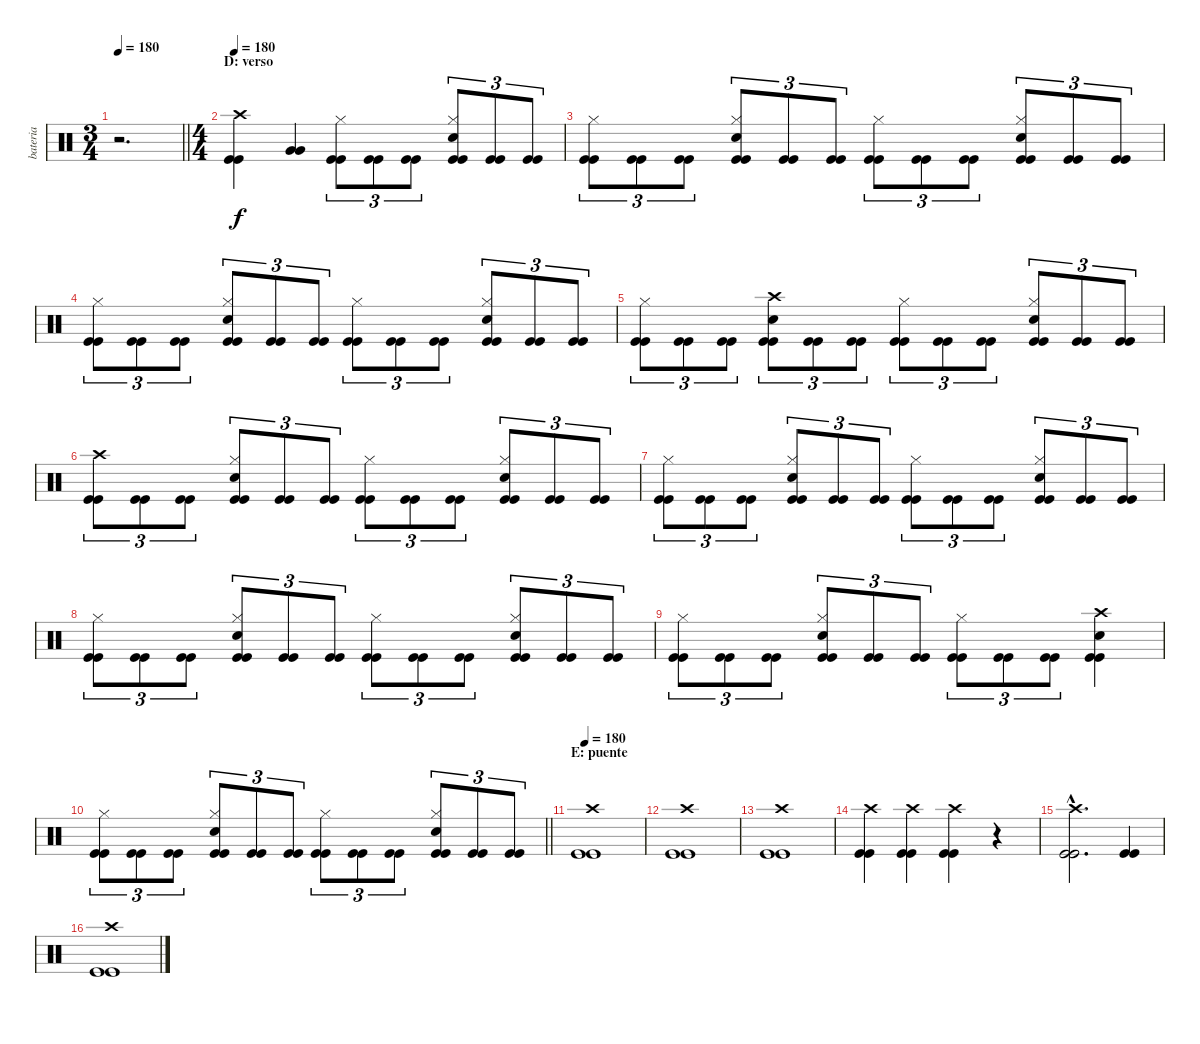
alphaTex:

\track ("bateria" "bateria") {instrument percussion}
\staff {score}
\articulation defaults
\ts (3 4)
\tempo 180
\clef neutral
\barLineRight lightlight
\ks c
r.2{d dy f} |
\ts (4 4)
\section ("" "D: verso ")
\tempo 180
("Crash high (hit)" "Kick (hit)" "Kick (hit)").4 ("Very Low Tom (hit)" "Very Low Tom (hit)").4 ("Hi-Hat (closed)" "Kick (hit)" "Kick (hit)").8{tu (3 2)} ("Kick (hit)" "Kick (hit)").8{tu (3 2)} ("Kick (hit)" "Kick (hit)").8{tu (3 2)} ("Hi-Hat (closed)" "Snare (hit) 2" "Kick (hit)" "Kick (hit)").8{tu (3 2)} ("Kick (hit)" "Kick (hit)").8{tu (3 2)} ("Kick (hit)" "Kick (hit)").8{tu (3 2)} |
("Hi-Hat (closed)" "Kick (hit)" "Kick (hit)").8{tu (3 2)} ("Kick (hit)" "Kick (hit)").8{tu (3 2)} ("Kick (hit)" "Kick (hit)").8{tu (3 2)} ("Hi-Hat (closed)" "Snare (hit) 2" "Kick (hit)" "Kick (hit)").8{tu (3 2)} ("Kick (hit)" "Kick (hit)").8{tu (3 2)} ("Kick (hit)" "Kick (hit)").8{tu (3 2)} ("Hi-Hat (closed)" "Kick (hit)" "Kick (hit)").8{tu (3 2)} ("Kick (hit)" "Kick (hit)").8{tu (3 2)} ("Kick (hit)" "Kick (hit)").8{tu (3 2)} ("Hi-Hat (closed)" "Snare (hit) 2" "Kick (hit)" "Kick (hit)").8{tu (3 2)} ("Kick (hit)" "Kick (hit)").8{tu (3 2)} ("Kick (hit)" "Kick (hit)").8{tu (3 2)} |
("Hi-Hat (closed)" "Kick (hit)" "Kick (hit)").8{tu (3 2)} ("Kick (hit)" "Kick (hit)").8{tu (3 2)} ("Kick (hit)" "Kick (hit)").8{tu (3 2)} ("Hi-Hat (closed)" "Snare (hit) 2" "Kick (hit)" "Kick (hit)").8{tu (3 2)} ("Kick (hit)" "Kick (hit)").8{tu (3 2)} ("Kick (hit)" "Kick (hit)").8{tu (3 2)} ("Hi-Hat (closed)" "Kick (hit)" "Kick (hit)").8{tu (3 2)} ("Kick (hit)" "Kick (hit)").8{tu (3 2)} ("Kick (hit)" "Kick (hit)").8{tu (3 2)} ("Hi-Hat (closed)" "Snare (hit) 2" "Kick (hit)" "Kick (hit)").8{tu (3 2)} ("Kick (hit)" "Kick (hit)").8{tu (3 2)} ("Kick (hit)" "Kick (hit)").8{tu (3 2)} |
("Hi-Hat (closed)" "Kick (hit)" "Kick (hit)").8{tu (3 2)} ("Kick (hit)" "Kick (hit)").8{tu (3 2)} ("Kick (hit)" "Kick (hit)").8{tu (3 2)} ("Crash high (hit)" "Snare (hit) 2" "Kick (hit)" "Kick (hit)").8{tu (3 2)} ("Kick (hit)" "Kick (hit)").8{tu (3 2)} ("Kick (hit)" "Kick (hit)").8{tu (3 2)} ("Hi-Hat (closed)" "Kick (hit)" "Kick (hit)").8{tu (3 2)} ("Kick (hit)" "Kick (hit)").8{tu (3 2)} ("Kick (hit)" "Kick (hit)").8{tu (3 2)} ("Hi-Hat (closed)" "Snare (hit) 2" "Kick (hit)" "Kick (hit)").8{tu (3 2)} ("Kick (hit)" "Kick (hit)").8{tu (3 2)} ("Kick (hit)" "Kick (hit)").8{tu (3 2)} |
("Crash high (hit)" "Kick (hit)" "Kick (hit)").8{tu (3 2)} ("Kick (hit)" "Kick (hit)").8{tu (3 2)} ("Kick (hit)" "Kick (hit)").8{tu (3 2)} ("Hi-Hat (closed)" "Snare (hit) 2" "Kick (hit)" "Kick (hit)").8{tu (3 2)} ("Kick (hit)" "Kick (hit)").8{tu (3 2)} ("Kick (hit)" "Kick (hit)").8{tu (3 2)} ("Hi-Hat (closed)" "Kick (hit)" "Kick (hit)").8{tu (3 2)} ("Kick (hit)" "Kick (hit)").8{tu (3 2)} ("Kick (hit)" "Kick (hit)").8{tu (3 2)} ("Hi-Hat (closed)" "Snare (hit) 2" "Kick (hit)" "Kick (hit)").8{tu (3 2)} ("Kick (hit)" "Kick (hit)").8{tu (3 2)} ("Kick (hit)" "Kick (hit)").8{tu (3 2)} |
("Hi-Hat (closed)" "Kick (hit)" "Kick (hit)").8{tu (3 2)} ("Kick (hit)" "Kick (hit)").8{tu (3 2)} ("Kick (hit)" "Kick (hit)").8{tu (3 2)} ("Hi-Hat (closed)" "Snare (hit) 2" "Kick (hit)" "Kick (hit)").8{tu (3 2)} ("Kick (hit)" "Kick (hit)").8{tu (3 2)} ("Kick (hit)" "Kick (hit)").8{tu (3 2)} ("Hi-Hat (closed)" "Kick (hit)" "Kick (hit)").8{tu (3 2)} ("Kick (hit)" "Kick (hit)").8{tu (3 2)} ("Kick (hit)" "Kick (hit)").8{tu (3 2)} ("Hi-Hat (closed)" "Snare (hit) 2" "Kick (hit)" "Kick (hit)").8{tu (3 2)} ("Kick (hit)" "Kick (hit)").8{tu (3 2)} ("Kick (hit)" "Kick (hit)").8{tu (3 2)} |
("Hi-Hat (closed)" "Kick (hit)" "Kick (hit)").8{tu (3 2)} ("Kick (hit)" "Kick (hit)").8{tu (3 2)} ("Kick (hit)" "Kick (hit)").8{tu (3 2)} ("Hi-Hat (closed)" "Snare (hit) 2" "Kick (hit)" "Kick (hit)").8{tu (3 2)} ("Kick (hit)" "Kick (hit)").8{tu (3 2)} ("Kick (hit)" "Kick (hit)").8{tu (3 2)} ("Hi-Hat (closed)" "Kick (hit)" "Kick (hit)").8{tu (3 2)} ("Kick (hit)" "Kick (hit)").8{tu (3 2)} ("Kick (hit)" "Kick (hit)").8{tu (3 2)} ("Hi-Hat (closed)" "Snare (hit) 2" "Kick (hit)" "Kick (hit)").8{tu (3 2)} ("Kick (hit)" "Kick (hit)").8{tu (3 2)} ("Kick (hit)" "Kick (hit)").8{tu (3 2)} |
("Hi-Hat (closed)" "Kick (hit)" "Kick (hit)").8{tu (3 2)} ("Kick (hit)" "Kick (hit)").8{tu (3 2)} ("Kick (hit)" "Kick (hit)").8{tu (3 2)} ("Hi-Hat (closed)" "Snare (hit) 2" "Kick (hit)" "Kick (hit)").8{tu (3 2)} ("Kick (hit)" "Kick (hit)").8{tu (3 2)} ("Kick (hit)" "Kick (hit)").8{tu (3 2)} ("Hi-Hat (closed)" "Kick (hit)" "Kick (hit)").8{tu (3 2)} ("Kick (hit)" "Kick (hit)").8{tu (3 2)} ("Kick (hit)" "Kick (hit)").8{tu (3 2)} ("Crash high (hit)" "Snare (hit) 2" "Kick (hit)" "Kick (hit)").4 |
\barLineRight lightlight
("Hi-Hat (closed)" "Kick (hit)" "Kick (hit)").8{tu (3 2)} ("Kick (hit)" "Kick (hit)").8{tu (3 2)} ("Kick (hit)" "Kick (hit)").8{tu (3 2)} ("Hi-Hat (closed)" "Snare (hit) 2" "Kick (hit)" "Kick (hit)").8{tu (3 2)} ("Kick (hit)" "Kick (hit)").8{tu (3 2)} ("Kick (hit)" "Kick (hit)").8{tu (3 2)} ("Hi-Hat (closed)" "Kick (hit)" "Kick (hit)").8{tu (3 2)} ("Kick (hit)" "Kick (hit)").8{tu (3 2)} ("Kick (hit)" "Kick (hit)").8{tu (3 2)} ("Hi-Hat (closed)" "Snare (hit) 2" "Kick (hit)" "Kick (hit)").8{tu (3 2)} ("Kick (hit)" "Kick (hit)").8{tu (3 2)} ("Kick (hit)" "Kick (hit)").8{tu (3 2)} |
\section ("" "E: puente")
\tempo 180
("Crash high (hit)" "Kick (hit)" "Kick (hit)").1 |
("Crash high (hit)" "Kick (hit)" "Kick (hit)").1 |
("Crash high (hit)" "Kick (hit)" "Kick (hit)").1 |
("Crash high (hit)" "Kick (hit)" "Kick (hit)").4 ("Crash high (hit)" "Kick (hit)" "Kick (hit)").4 ("Crash high (hit)" "Kick (hit)" "Kick (hit)").4 r.4 |
("Crash high (hit)"{hac} "Kick (hit)"{hac} "Kick (hit)"{hac}).2{d} ("Kick (hit)" "Kick (hit)").4 |
("Crash high (hit)" "Kick (hit)" "Kick (hit)").1
